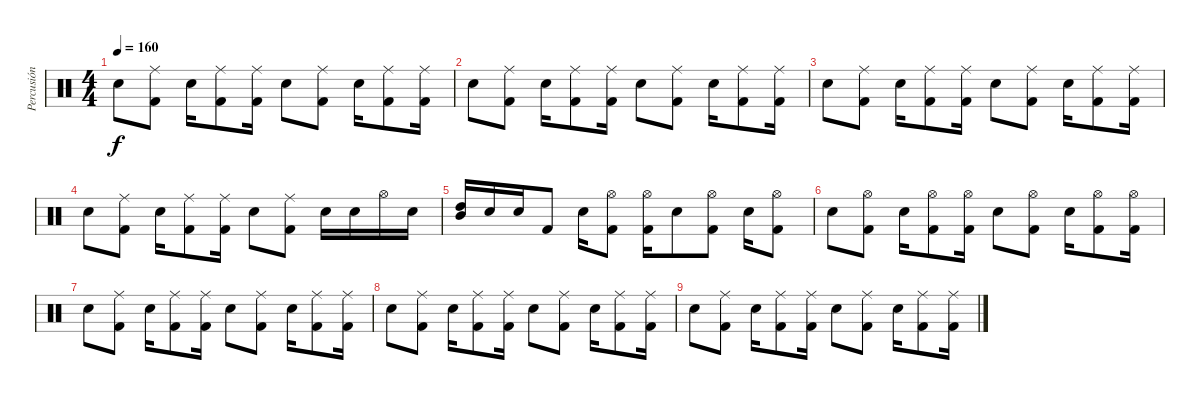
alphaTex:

\track ("Percusión" "Percusión") {instrument percussion}
\staff {score}
\articulation defaults
\ts (4 4)
\tempo 160
\clef neutral
\ks c "Snare (hit) 2".8{dy f}
("Kick (hit) 2" "Ride (middle)").8 "Snare (hit) 2".16 ("Kick (hit) 2" "Ride (middle)").8 ("Kick (hit) 2" "Ride (middle)").16 "Snare (hit) 2".8 ("Kick (hit) 2" "Ride (middle)").8 "Snare (hit) 2".16 ("Kick (hit) 2" "Ride (middle)").8 ("Kick (hit) 2" "Ride (middle)").16 |
"Snare (hit) 2".8 ("Kick (hit) 2" "Ride (middle)").8 "Snare (hit) 2".16 ("Kick (hit) 2" "Ride (middle)").8 ("Kick (hit) 2" "Ride (middle)").16 "Snare (hit) 2".8 ("Kick (hit) 2" "Ride (middle)").8 "Snare (hit) 2".16 ("Kick (hit) 2" "Ride (middle)").8 ("Kick (hit) 2" "Ride (middle)").16 |
"Snare (hit) 2".8 ("Kick (hit) 2" "Ride (middle)").8 "Snare (hit) 2".16 ("Kick (hit) 2" "Ride (middle)").8 ("Kick (hit) 2" "Ride (middle)").16 "Snare (hit) 2".8 ("Kick (hit) 2" "Ride (middle)").8 "Snare (hit) 2".16 ("Kick (hit) 2" "Ride (middle)").8 ("Kick (hit) 2" "Ride (middle)").16 |
"Snare (hit) 2".8 ("Kick (hit) 2" "Ride (middle)").8 "Snare (hit) 2".16 ("Kick (hit) 2" "Ride (middle)").8 ("Kick (hit) 2" "Ride (middle)").16 "Snare (hit) 2".8 ("Kick (hit) 2" "Ride (middle)").8 "Electric Snare (hit)".16 "Electric Snare (hit)".16 "Hi-Hat (open)".16 "Electric Snare (hit)".16 |
("High Tom (hit)" "Mid Tom (hit)").16 "Electric Snare (hit)".16 "Electric Snare (hit)".16 "Kick (hit) 2".8 "Snare (hit) 2".16 ("Kick (hit) 2" "Hi-Hat (open)").8 ("Kick (hit) 2" "Hi-Hat (open)").16 "Snare (hit) 2".8 ("Kick (hit) 2" "Hi-Hat (open)").8 "Snare (hit) 2".16 ("Kick (hit) 2" "Hi-Hat (open)").8 |
"Snare (hit) 2".8 ("Kick (hit) 2" "Hi-Hat (open)").8 "Snare (hit) 2".16 ("Kick (hit) 2" "Hi-Hat (open)").8 ("Kick (hit) 2" "Hi-Hat (open)").16 "Snare (hit) 2".8 ("Kick (hit) 2" "Hi-Hat (open)").8 "Snare (hit) 2".16 ("Kick (hit) 2" "Hi-Hat (open)").8 ("Kick (hit) 2" "Hi-Hat (open)").16 |
"Snare (hit) 2".8 ("Kick (hit) 2" "Ride (middle)").8 "Snare (hit) 2".16 ("Kick (hit) 2" "Ride (middle)").8 ("Kick (hit) 2" "Ride (middle)").16 "Snare (hit) 2".8 ("Kick (hit) 2" "Ride (middle)").8 "Snare (hit) 2".16 ("Kick (hit) 2" "Ride (middle)").8 ("Kick (hit) 2" "Ride (middle)").16 |
"Snare (hit) 2".8 ("Kick (hit) 2" "Ride (middle)").8 "Snare (hit) 2".16 ("Kick (hit) 2" "Ride (middle)").8 ("Kick (hit) 2" "Ride (middle)").16 "Snare (hit) 2".8 ("Kick (hit) 2" "Ride (middle)").8 "Snare (hit) 2".16 ("Kick (hit) 2" "Ride (middle)").8 ("Kick (hit) 2" "Ride (middle)").16 |
"Snare (hit) 2".8 ("Kick (hit) 2" "Ride (middle)").8 "Snare (hit) 2".16 ("Kick (hit) 2" "Ride (middle)").8 ("Kick (hit) 2" "Ride (middle)").16 "Snare (hit) 2".8 ("Kick (hit) 2" "Ride (middle)").8 "Snare (hit) 2".16 ("Kick (hit) 2" "Ride (middle)").8 ("Kick (hit) 2" "Ride (middle)").16
